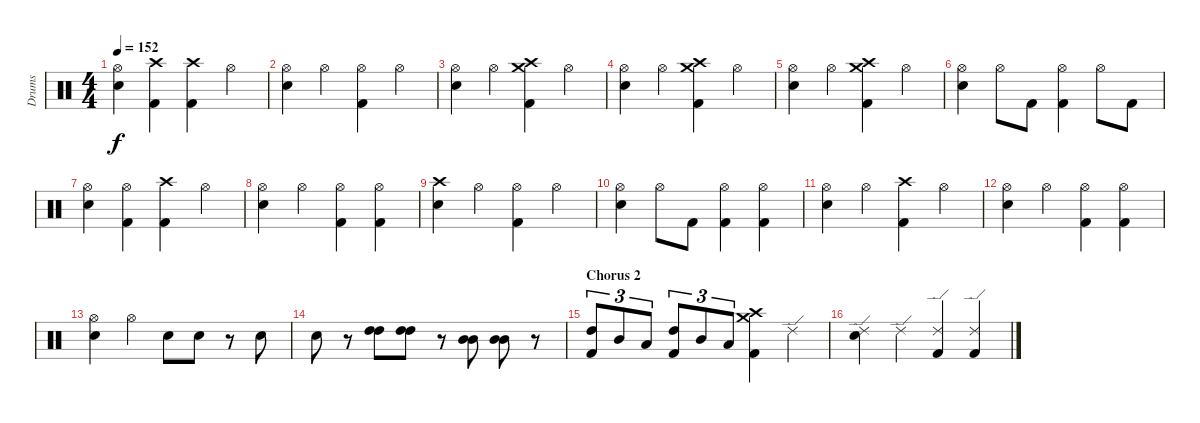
\track ("Drums" "Drums") {instrument percussion}
\staff {score}
\articulation defaults
\ts (4 4)
\tempo 152
\clef neutral
\ks c
("Electric Snare (hit)" "Hi-Hat (open)").4{dy f} ("Kick (hit) 2" "Crash high (hit)").4 ("Kick (hit) 2" "Crash high (hit)").4 "Hi-Hat (open)".4 |
("Electric Snare (hit)" "Hi-Hat (open)").4 "Hi-Hat (open)".4 ("Kick (hit) 2" "Hi-Hat (open)").4 "Hi-Hat (open)".4 |
("Electric Snare (hit)" "Hi-Hat (open)").4 "Hi-Hat (open)".4 ("Kick (hit) 2" "Crash high (hit)" "Crash medium (hit)").4 "Hi-Hat (open)".4 |
("Electric Snare (hit)" "Hi-Hat (open)").4 "Hi-Hat (open)".4 ("Kick (hit) 2" "Crash high (hit)" "Crash medium (hit)").4 "Hi-Hat (open)".4 |
("Electric Snare (hit)" "Hi-Hat (open)").4 "Hi-Hat (open)".4 ("Kick (hit) 2" "Crash high (hit)" "Crash medium (hit)").4 "Hi-Hat (open)".4 |
("Electric Snare (hit)" "Hi-Hat (open)").4 "Hi-Hat (open)".8 "Kick (hit) 2".8 ("Kick (hit) 2" "Hi-Hat (open)").4 "Hi-Hat (open)".8 "Kick (hit) 2".8 |
("Electric Snare (hit)" "Hi-Hat (open)").4 ("Kick (hit) 2" "Hi-Hat (open)").4 ("Kick (hit) 2" "Crash high (hit)").4 "Hi-Hat (open)".4 |
("Electric Snare (hit)" "Hi-Hat (open)").4 "Hi-Hat (open)".4 ("Kick (hit) 2" "Hi-Hat (open)").4 ("Kick (hit) 2" "Hi-Hat (open)").4 |
("Electric Snare (hit)" "Crash high (hit)").4 "Hi-Hat (open)".4 ("Kick (hit) 2" "Hi-Hat (open)").4 "Hi-Hat (open)".4 |
("Electric Snare (hit)" "Hi-Hat (open)").4 "Hi-Hat (open)".8 "Kick (hit) 2".8 ("Kick (hit) 2" "Hi-Hat (open)").4 ("Kick (hit) 2" "Hi-Hat (open)").4 |
("Electric Snare (hit)" "Hi-Hat (open)").4 "Hi-Hat (open)".4 ("Kick (hit) 2" "Crash high (hit)").4 "Hi-Hat (open)".4 |
("Electric Snare (hit)" "Hi-Hat (open)").4 "Hi-Hat (open)".4 ("Kick (hit) 2" "Hi-Hat (open)").4 ("Kick (hit) 2" "Hi-Hat (open)").4 |
("Electric Snare (hit)" "Hi-Hat (open)").4 "Hi-Hat (open)".4 "Electric Snare (hit)".8 "Electric Snare (hit)".8 r.8 "Electric Snare (hit)".8 |
"Electric Snare (hit)".8 r.8 ("High Tom (hit)" "High Tom (hit)").8 ("High Tom (hit)" "High Tom (hit)").8 r.8 ("Mid Tom (hit)" "Mid Tom (hit)").8 ("Mid Tom (hit)" "Mid Tom (hit)").8 r.8 |
\section ("" "Chorus 2")
("Kick (hit) 2" "High Tom (hit)").8{tu (3 2)} "Mid Tom (hit)".8{tu (3 2)} "Low Tom (hit)".8{tu (3 2)} ("Kick (hit) 2" "High Tom (hit)").8{tu (3 2)} "Mid Tom (hit)".8{tu (3 2)} "Low Tom (hit)".8{tu (3 2)} ("Kick (hit) 2" "Crash high (hit)" "Crash medium (hit)").4 "Ride (edge) 2".4 |
("Electric Snare (hit)" "Ride (edge) 2").4 "Ride (edge) 2".4 ("Kick (hit) 2" "Ride (edge) 2").4 ("Kick (hit) 2" "Ride (edge) 2").4
